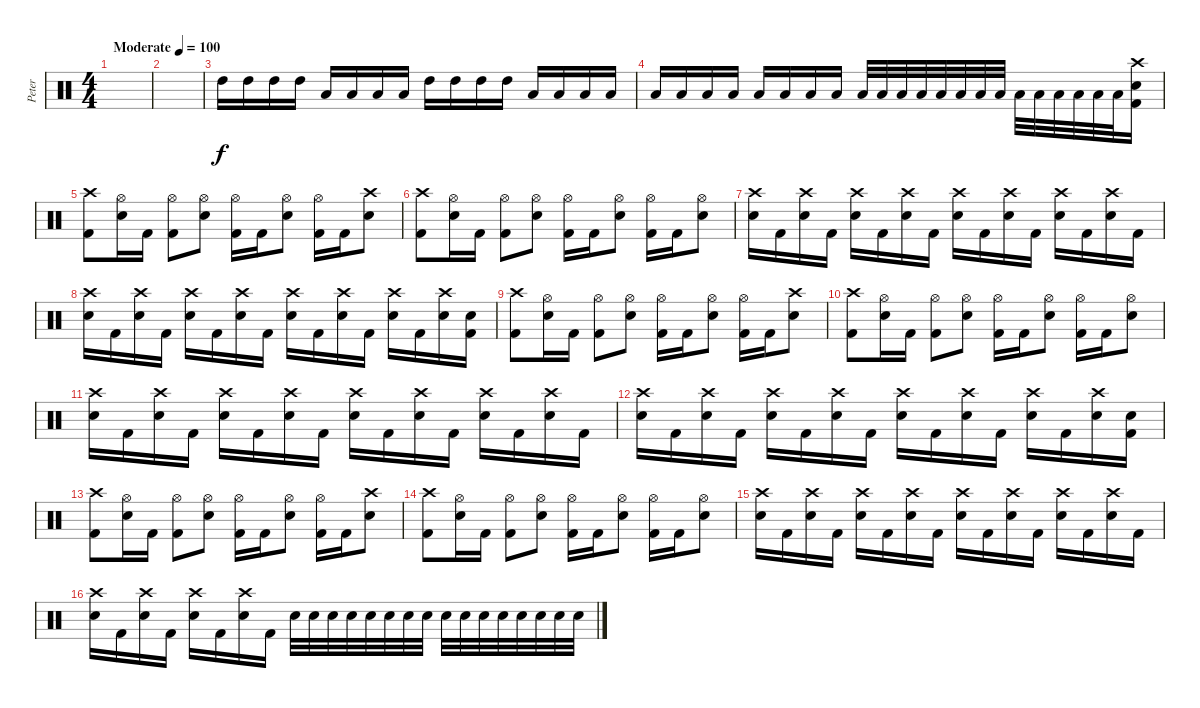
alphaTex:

\track ("Peter" "Peter") {instrument percussion}
\staff {score}
\articulation defaults
\ts (4 4)
\tempo (100 "Moderate")
\clef neutral
\ks c
|
|
"High Tom (hit)".16 "High Tom (hit)".16 "High Tom (hit)".16 "High Tom (hit)".16 "Low Tom (hit)".16 "Low Tom (hit)".16 "Low Tom (hit)".16 "Low Tom (hit)".16 "High Tom (hit)".16 "High Tom (hit)".16 "High Tom (hit)".16 "High Tom (hit)".16 "Low Tom (hit)".16 "Low Tom (hit)".16 "Low Tom (hit)".16 "Low Tom (hit)".16 |
"Low Tom (hit)".16 "Low Tom (hit)".16 "Low Tom (hit)".16 "Low Tom (hit)".16 "Low Tom (hit)".16 "Low Tom (hit)".16 "Low Tom (hit)".16 "Low Tom (hit)".16 "Low Tom (hit)".32 "Low Tom (hit)".32 "Low Tom (hit)".32 "Low Tom (hit)".32 "Low Tom (hit)".32 "Low Tom (hit)".32 "Low Tom (hit)".32 "Low Tom (hit)".32 "Low Tom (hit)".32 "Low Tom (hit)".32 "Low Tom (hit)".32 "Low Tom (hit)".32 "Low Tom (hit)".32 "Low Tom (hit)".32 ("Kick (hit) 2" "Electric Snare (hit)" "Crash high (hit)").16 |
("Kick (hit) 2" "Crash high (hit)").8 ("Electric Snare (hit)" "Hi-Hat (open)").16 "Kick (hit) 2".16 ("Kick (hit) 2" "Hi-Hat (open)").8 ("Electric Snare (hit)" "Hi-Hat (open)").8 ("Kick (hit) 2" "Hi-Hat (open)").16 "Kick (hit) 2".16 ("Electric Snare (hit)" "Hi-Hat (open)").8 ("Kick (hit) 2" "Hi-Hat (open)").16 "Kick (hit) 2".16 ("Electric Snare (hit)" "Crash high (hit)").8 |
("Kick (hit) 2" "Crash high (hit)").8 ("Electric Snare (hit)" "Hi-Hat (open)").16 "Kick (hit) 2".16 ("Kick (hit) 2" "Hi-Hat (open)").8 ("Electric Snare (hit)" "Hi-Hat (open)").8 ("Kick (hit) 2" "Hi-Hat (open)").16 "Kick (hit) 2".16 ("Electric Snare (hit)" "Hi-Hat (open)").8 ("Kick (hit) 2" "Hi-Hat (open)").16 "Kick (hit) 2".16 ("Electric Snare (hit)" "Hi-Hat (open)").8 |
("Electric Snare (hit)" "Crash high (hit)").16 "Kick (hit) 2".16 ("Electric Snare (hit)" "Crash high (hit)").16 "Kick (hit) 2".16 ("Electric Snare (hit)" "Crash high (hit)").16 "Kick (hit) 2".16 ("Electric Snare (hit)" "Crash high (hit)").16 "Kick (hit) 2".16 ("Electric Snare (hit)" "Crash high (hit)").16 "Kick (hit) 2".16 ("Electric Snare (hit)" "Crash high (hit)").16 "Kick (hit) 2".16 ("Electric Snare (hit)" "Crash high (hit)").16 "Kick (hit) 2".16 ("Electric Snare (hit)" "Crash high (hit)").16 "Kick (hit) 2".16 |
("Electric Snare (hit)" "Crash high (hit)").16 "Kick (hit) 2".16 ("Electric Snare (hit)" "Crash high (hit)").16 "Kick (hit) 2".16 ("Electric Snare (hit)" "Crash high (hit)").16 "Kick (hit) 2".16 ("Electric Snare (hit)" "Crash high (hit)").16 "Kick (hit) 2".16 ("Electric Snare (hit)" "Crash high (hit)").16 "Kick (hit) 2".16 ("Electric Snare (hit)" "Crash high (hit)").16 "Kick (hit) 2".16 ("Electric Snare (hit)" "Crash high (hit)").16 "Kick (hit) 2".16 ("Electric Snare (hit)" "Crash high (hit)").16 ("Kick (hit) 2" "Electric Snare (hit)").16 |
("Kick (hit) 2" "Crash high (hit)").8 ("Electric Snare (hit)" "Hi-Hat (open)").16 "Kick (hit) 2".16 ("Kick (hit) 2" "Hi-Hat (open)").8 ("Electric Snare (hit)" "Hi-Hat (open)").8 ("Kick (hit) 2" "Hi-Hat (open)").16 "Kick (hit) 2".16 ("Electric Snare (hit)" "Hi-Hat (open)").8 ("Kick (hit) 2" "Hi-Hat (open)").16 "Kick (hit) 2".16 ("Electric Snare (hit)" "Crash high (hit)").8 |
("Kick (hit) 2" "Crash high (hit)").8 ("Electric Snare (hit)" "Hi-Hat (open)").16 "Kick (hit) 2".16 ("Kick (hit) 2" "Hi-Hat (open)").8 ("Electric Snare (hit)" "Hi-Hat (open)").8 ("Kick (hit) 2" "Hi-Hat (open)").16 "Kick (hit) 2".16 ("Electric Snare (hit)" "Hi-Hat (open)").8 ("Kick (hit) 2" "Hi-Hat (open)").16 "Kick (hit) 2".16 ("Electric Snare (hit)" "Hi-Hat (open)").8 |
("Electric Snare (hit)" "Crash high (hit)").16 "Kick (hit) 2".16 ("Electric Snare (hit)" "Crash high (hit)").16 "Kick (hit) 2".16 ("Electric Snare (hit)" "Crash high (hit)").16 "Kick (hit) 2".16 ("Electric Snare (hit)" "Crash high (hit)").16 "Kick (hit) 2".16 ("Electric Snare (hit)" "Crash high (hit)").16 "Kick (hit) 2".16 ("Electric Snare (hit)" "Crash high (hit)").16 "Kick (hit) 2".16 ("Electric Snare (hit)" "Crash high (hit)").16 "Kick (hit) 2".16 ("Electric Snare (hit)" "Crash high (hit)").16 "Kick (hit) 2".16 |
("Electric Snare (hit)" "Crash high (hit)").16 "Kick (hit) 2".16 ("Electric Snare (hit)" "Crash high (hit)").16 "Kick (hit) 2".16 ("Electric Snare (hit)" "Crash high (hit)").16 "Kick (hit) 2".16 ("Electric Snare (hit)" "Crash high (hit)").16 "Kick (hit) 2".16 ("Electric Snare (hit)" "Crash high (hit)").16 "Kick (hit) 2".16 ("Electric Snare (hit)" "Crash high (hit)").16 "Kick (hit) 2".16 ("Electric Snare (hit)" "Crash high (hit)").16 "Kick (hit) 2".16 ("Electric Snare (hit)" "Crash high (hit)").16 ("Kick (hit) 2" "Electric Snare (hit)").16 |
("Kick (hit) 2" "Crash high (hit)").8 ("Electric Snare (hit)" "Hi-Hat (open)").16 "Kick (hit) 2".16 ("Kick (hit) 2" "Hi-Hat (open)").8 ("Electric Snare (hit)" "Hi-Hat (open)").8 ("Kick (hit) 2" "Hi-Hat (open)").16 "Kick (hit) 2".16 ("Electric Snare (hit)" "Hi-Hat (open)").8 ("Kick (hit) 2" "Hi-Hat (open)").16 "Kick (hit) 2".16 ("Electric Snare (hit)" "Crash high (hit)").8 |
("Kick (hit) 2" "Crash high (hit)").8 ("Electric Snare (hit)" "Hi-Hat (open)").16 "Kick (hit) 2".16 ("Kick (hit) 2" "Hi-Hat (open)").8 ("Electric Snare (hit)" "Hi-Hat (open)").8 ("Kick (hit) 2" "Hi-Hat (open)").16 "Kick (hit) 2".16 ("Electric Snare (hit)" "Hi-Hat (open)").8 ("Kick (hit) 2" "Hi-Hat (open)").16 "Kick (hit) 2".16 ("Electric Snare (hit)" "Hi-Hat (open)").8 |
("Electric Snare (hit)" "Crash high (hit)").16 "Kick (hit) 2".16 ("Electric Snare (hit)" "Crash high (hit)").16 "Kick (hit) 2".16 ("Electric Snare (hit)" "Crash high (hit)").16 "Kick (hit) 2".16 ("Electric Snare (hit)" "Crash high (hit)").16 "Kick (hit) 2".16 ("Electric Snare (hit)" "Crash high (hit)").16 "Kick (hit) 2".16 ("Electric Snare (hit)" "Crash high (hit)").16 "Kick (hit) 2".16 ("Electric Snare (hit)" "Crash high (hit)").16 "Kick (hit) 2".16 ("Electric Snare (hit)" "Crash high (hit)").16 "Kick (hit) 2".16 |
("Electric Snare (hit)" "Crash high (hit)").16 "Kick (hit) 2".16 ("Electric Snare (hit)" "Crash high (hit)").16 "Kick (hit) 2".16 ("Electric Snare (hit)" "Crash high (hit)").16 "Kick (hit) 2".16 ("Electric Snare (hit)" "Crash high (hit)").16 "Kick (hit) 2".16 "Electric Snare (hit)".32 "Electric Snare (hit)".32 "Electric Snare (hit)".32 "Electric Snare (hit)".32 "Electric Snare (hit)".32 "Electric Snare (hit)".32 "Electric Snare (hit)".32 "Electric Snare (hit)".32 "Electric Snare (hit)".32 "Electric Snare (hit)".32 "Electric Snare (hit)".32 "Electric Snare (hit)".32 "Electric Snare (hit)".32 "Electric Snare (hit)".32 "Electric Snare (hit)".32 "Electric Snare (hit)".32
